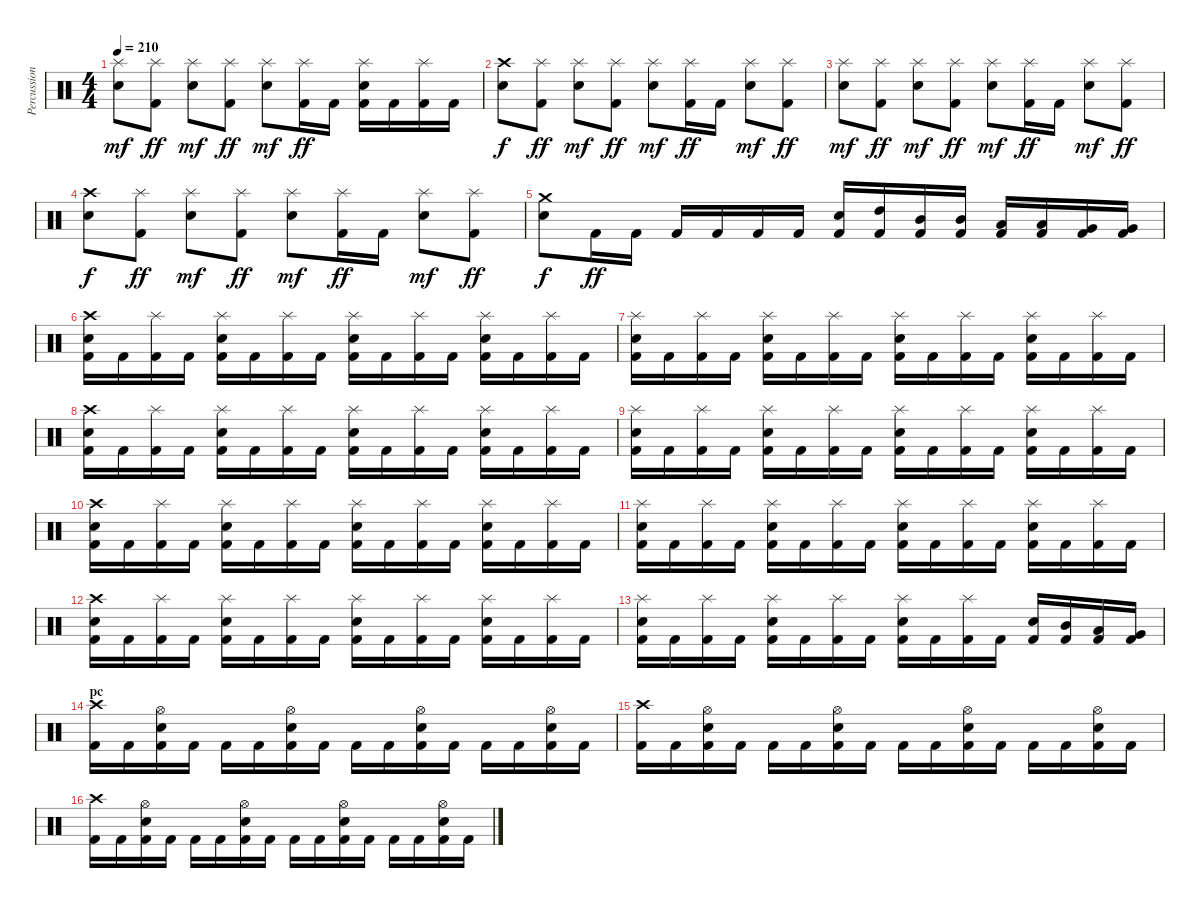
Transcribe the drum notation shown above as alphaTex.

\track ("Percussion" "Percussion") {instrument percussion}
\staff {score}
\articulation defaults
\ts (4 4)
\tempo 210
\clef neutral
\ks c
("Splash (hit)" "Snare (hit) 2").8{dy mf} ("Splash (hit)" "Kick (hit) 2").8{dy ff} ("Splash (hit)" "Snare (hit) 2").8{dy mf} ("Splash (hit)" "Kick (hit) 2").8{dy ff} ("Splash (hit)" "Snare (hit) 2").8{dy mf} ("Splash (hit)" "Kick (hit) 2").16{dy ff} "Kick (hit) 2".16 ("Splash (hit)" "Snare (hit) 2" "Kick (hit) 2").16 "Kick (hit) 2".16 ("Splash (hit)" "Kick (hit) 2").16 "Kick (hit) 2".16 |
("Crash high (hit)" "Snare (hit) 2").8{dy f} ("Splash (hit)" "Kick (hit) 2").8{dy ff} ("Splash (hit)" "Snare (hit) 2").8{dy mf} ("Splash (hit)" "Kick (hit) 2").8{dy ff} ("Splash (hit)" "Snare (hit) 2").8{dy mf} ("Splash (hit)" "Kick (hit) 2").16{dy ff} "Kick (hit) 2".16 ("Splash (hit)" "Snare (hit) 2").8{dy mf} ("Splash (hit)" "Kick (hit) 2").8{dy ff} |
("Splash (hit)" "Snare (hit) 2").8{dy mf} ("Splash (hit)" "Kick (hit) 2").8{dy ff} ("Splash (hit)" "Snare (hit) 2").8{dy mf} ("Splash (hit)" "Kick (hit) 2").8{dy ff} ("Splash (hit)" "Snare (hit) 2").8{dy mf} ("Splash (hit)" "Kick (hit) 2").16{dy ff} "Kick (hit) 2".16 ("Splash (hit)" "Snare (hit) 2").8{dy mf} ("Splash (hit)" "Kick (hit) 2").8{dy ff} |
("Crash high (hit)" "Snare (hit) 2").8{dy f} ("Splash (hit)" "Kick (hit) 2").8{dy ff} ("Splash (hit)" "Snare (hit) 2").8{dy mf} ("Splash (hit)" "Kick (hit) 2").8{dy ff} ("Splash (hit)" "Snare (hit) 2").8{dy mf} ("Splash (hit)" "Kick (hit) 2").16{dy ff} "Kick (hit) 2".16 ("Splash (hit)" "Snare (hit) 2").8{dy mf} ("Splash (hit)" "Kick (hit) 2").8{dy ff} |
("Crash medium (hit)" "Snare (hit) 2").8{dy f} "Kick (hit) 2".16{dy ff} "Kick (hit) 2".16 "Kick (hit) 2".16 "Kick (hit) 2".16 "Kick (hit) 2".16 "Kick (hit) 2".16 ("Snare (hit) 2" "Kick (hit) 2").16 ("High Tom (hit)" "Kick (hit) 2").16 ("Mid Tom (hit)" "Kick (hit) 2").16 ("Mid Tom (hit)" "Kick (hit) 2").16 ("Low Tom (hit)" "Kick (hit) 2").16 ("Low Tom (hit)" "Kick (hit) 2").16 ("Very Low Tom (hit)" "Kick (hit) 2").16 ("Very Low Tom (hit)" "Kick (hit) 2").16 |
("Crash high (hit)" "Snare (hit) 2" "Kick (hit) 2").16 "Kick (hit) 2".16 ("Splash (hit)" "Kick (hit) 2").16 "Kick (hit) 2".16 ("Splash (hit)" "Snare (hit) 2" "Kick (hit) 2").16 "Kick (hit) 2".16 ("Splash (hit)" "Kick (hit) 2").16 "Kick (hit) 2".16 ("Splash (hit)" "Snare (hit) 2" "Kick (hit) 2").16 "Kick (hit) 2".16 ("Splash (hit)" "Kick (hit) 2").16 "Kick (hit) 2".16 ("Splash (hit)" "Snare (hit) 2" "Kick (hit) 2").16 "Kick (hit) 2".16 ("Splash (hit)" "Kick (hit) 2").16 "Kick (hit) 2".16 |
("Splash (hit)" "Snare (hit) 2" "Kick (hit) 2").16 "Kick (hit) 2".16 ("Splash (hit)" "Kick (hit) 2").16 "Kick (hit) 2".16 ("Splash (hit)" "Snare (hit) 2" "Kick (hit) 2").16 "Kick (hit) 2".16 ("Splash (hit)" "Kick (hit) 2").16 "Kick (hit) 2".16 ("Splash (hit)" "Snare (hit) 2" "Kick (hit) 2").16 "Kick (hit) 2".16 ("Splash (hit)" "Kick (hit) 2").16 "Kick (hit) 2".16 ("Splash (hit)" "Snare (hit) 2" "Kick (hit) 2").16 "Kick (hit) 2".16 ("Splash (hit)" "Kick (hit) 2").16 "Kick (hit) 2".16 |
("Crash high (hit)" "Snare (hit) 2" "Kick (hit) 2").16 "Kick (hit) 2".16 ("Splash (hit)" "Kick (hit) 2").16 "Kick (hit) 2".16 ("Splash (hit)" "Snare (hit) 2" "Kick (hit) 2").16 "Kick (hit) 2".16 ("Splash (hit)" "Kick (hit) 2").16 "Kick (hit) 2".16 ("Splash (hit)" "Snare (hit) 2" "Kick (hit) 2").16 "Kick (hit) 2".16 ("Splash (hit)" "Kick (hit) 2").16 "Kick (hit) 2".16 ("Splash (hit)" "Snare (hit) 2" "Kick (hit) 2").16 "Kick (hit) 2".16 ("Splash (hit)" "Kick (hit) 2").16 "Kick (hit) 2".16 |
("Splash (hit)" "Snare (hit) 2" "Kick (hit) 2").16 "Kick (hit) 2".16 ("Splash (hit)" "Kick (hit) 2").16 "Kick (hit) 2".16 ("Splash (hit)" "Snare (hit) 2" "Kick (hit) 2").16 "Kick (hit) 2".16 ("Splash (hit)" "Kick (hit) 2").16 "Kick (hit) 2".16 ("Splash (hit)" "Snare (hit) 2" "Kick (hit) 2").16 "Kick (hit) 2".16 ("Splash (hit)" "Kick (hit) 2").16 "Kick (hit) 2".16 ("Splash (hit)" "Snare (hit) 2" "Kick (hit) 2").16 "Kick (hit) 2".16 ("Splash (hit)" "Kick (hit) 2").16 "Kick (hit) 2".16 |
("Crash high (hit)" "Snare (hit) 2" "Kick (hit) 2").16 "Kick (hit) 2".16 ("Splash (hit)" "Kick (hit) 2").16 "Kick (hit) 2".16 ("Splash (hit)" "Snare (hit) 2" "Kick (hit) 2").16 "Kick (hit) 2".16 ("Splash (hit)" "Kick (hit) 2").16 "Kick (hit) 2".16 ("Splash (hit)" "Snare (hit) 2" "Kick (hit) 2").16 "Kick (hit) 2".16 ("Splash (hit)" "Kick (hit) 2").16 "Kick (hit) 2".16 ("Splash (hit)" "Snare (hit) 2" "Kick (hit) 2").16 "Kick (hit) 2".16 ("Splash (hit)" "Kick (hit) 2").16 "Kick (hit) 2".16 |
("Splash (hit)" "Snare (hit) 2" "Kick (hit) 2").16 "Kick (hit) 2".16 ("Splash (hit)" "Kick (hit) 2").16 "Kick (hit) 2".16 ("Splash (hit)" "Snare (hit) 2" "Kick (hit) 2").16 "Kick (hit) 2".16 ("Splash (hit)" "Kick (hit) 2").16 "Kick (hit) 2".16 ("Splash (hit)" "Snare (hit) 2" "Kick (hit) 2").16 "Kick (hit) 2".16 ("Splash (hit)" "Kick (hit) 2").16 "Kick (hit) 2".16 ("Splash (hit)" "Snare (hit) 2" "Kick (hit) 2").16 "Kick (hit) 2".16 ("Splash (hit)" "Kick (hit) 2").16 "Kick (hit) 2".16 |
("Crash high (hit)" "Snare (hit) 2" "Kick (hit) 2").16 "Kick (hit) 2".16 ("Splash (hit)" "Kick (hit) 2").16 "Kick (hit) 2".16 ("Splash (hit)" "Snare (hit) 2" "Kick (hit) 2").16 "Kick (hit) 2".16 ("Splash (hit)" "Kick (hit) 2").16 "Kick (hit) 2".16 ("Splash (hit)" "Snare (hit) 2" "Kick (hit) 2").16 "Kick (hit) 2".16 ("Splash (hit)" "Kick (hit) 2").16 "Kick (hit) 2".16 ("Splash (hit)" "Snare (hit) 2" "Kick (hit) 2").16 "Kick (hit) 2".16 ("Splash (hit)" "Kick (hit) 2").16 "Kick (hit) 2".16 |
("Splash (hit)" "Snare (hit) 2" "Kick (hit) 2").16 "Kick (hit) 2".16 ("Splash (hit)" "Kick (hit) 2").16 "Kick (hit) 2".16 ("Splash (hit)" "Snare (hit) 2" "Kick (hit) 2").16 "Kick (hit) 2".16 ("Splash (hit)" "Kick (hit) 2").16 "Kick (hit) 2".16 ("Splash (hit)" "Snare (hit) 2" "Kick (hit) 2").16 "Kick (hit) 2".16 ("Splash (hit)" "Kick (hit) 2").16 "Kick (hit) 2".16 ("Snare (hit) 2" "Kick (hit) 2").16 ("Mid Tom (hit)" "Kick (hit) 2").16 ("Low Tom (hit)" "Kick (hit) 2").16 ("Very Low Tom (hit)" "Kick (hit) 2").16 |
\section ("" "pc")
("Crash high (hit)" "Kick (hit) 2").16 "Kick (hit) 2".16 ("Hi-Hat (open)" "Snare (hit) 2" "Kick (hit) 2").16 "Kick (hit) 2".16 "Kick (hit) 2".16 "Kick (hit) 2".16 ("Hi-Hat (open)" "Snare (hit) 2" "Kick (hit) 2").16 "Kick (hit) 2".16 "Kick (hit) 2".16 "Kick (hit) 2".16 ("Hi-Hat (open)" "Snare (hit) 2" "Kick (hit) 2").16 "Kick (hit) 2".16 "Kick (hit) 2".16 "Kick (hit) 2".16 ("Hi-Hat (open)" "Snare (hit) 2" "Kick (hit) 2").16 "Kick (hit) 2".16 |
("Crash high (hit)" "Kick (hit) 2").16 "Kick (hit) 2".16 ("Hi-Hat (open)" "Snare (hit) 2" "Kick (hit) 2").16 "Kick (hit) 2".16 "Kick (hit) 2".16 "Kick (hit) 2".16 ("Hi-Hat (open)" "Snare (hit) 2" "Kick (hit) 2").16 "Kick (hit) 2".16 "Kick (hit) 2".16 "Kick (hit) 2".16 ("Hi-Hat (open)" "Snare (hit) 2" "Kick (hit) 2").16 "Kick (hit) 2".16 "Kick (hit) 2".16 "Kick (hit) 2".16 ("Hi-Hat (open)" "Snare (hit) 2" "Kick (hit) 2").16 "Kick (hit) 2".16 |
("Crash high (hit)" "Kick (hit) 2").16 "Kick (hit) 2".16 ("Hi-Hat (open)" "Snare (hit) 2" "Kick (hit) 2").16 "Kick (hit) 2".16 "Kick (hit) 2".16 "Kick (hit) 2".16 ("Hi-Hat (open)" "Snare (hit) 2" "Kick (hit) 2").16 "Kick (hit) 2".16 "Kick (hit) 2".16 "Kick (hit) 2".16 ("Hi-Hat (open)" "Snare (hit) 2" "Kick (hit) 2").16 "Kick (hit) 2".16 "Kick (hit) 2".16 "Kick (hit) 2".16 ("Hi-Hat (open)" "Snare (hit) 2" "Kick (hit) 2").16 "Kick (hit) 2".16
